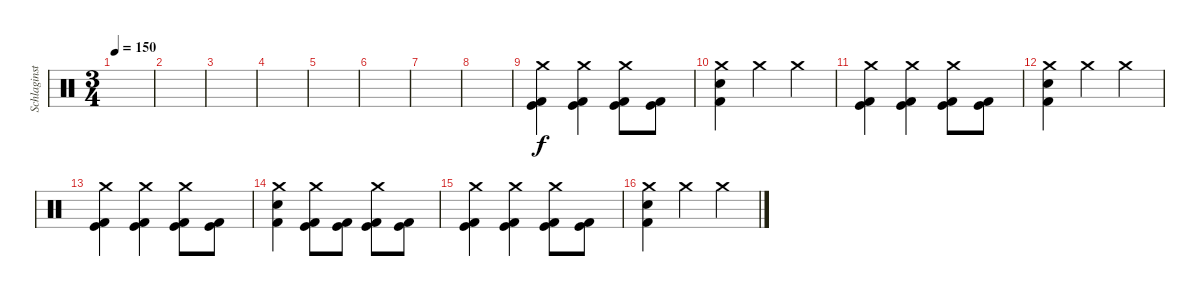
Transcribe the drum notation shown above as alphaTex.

\track ("Schlaginstrumente - Auswahl" "Schlaginst") {instrument percussion}
\staff {score}
\articulation defaults
\ts (3 4)
\tempo 150
\clef neutral
\ks c
|
|
|
|
|
|
|
|
("Crash medium (hit)" "Kick (hit)" "Kick (hit) 2").4 ("Crash medium (hit)" "Kick (hit)" "Kick (hit) 2").4 ("Crash medium (hit)" "Kick (hit)" "Kick (hit) 2").8 ("Kick (hit)" "Kick (hit) 2").8 |
("Crash medium (hit)" "Electric Snare (hit)" "Kick (hit) 2").4 "Crash medium (hit)".4 "Crash medium (hit)".4 |
("Crash medium (hit)" "Kick (hit)" "Kick (hit) 2").4 ("Crash medium (hit)" "Kick (hit)" "Kick (hit) 2").4 ("Crash medium (hit)" "Kick (hit)" "Kick (hit) 2").8 ("Kick (hit)" "Kick (hit) 2").8 |
("Crash medium (hit)" "Electric Snare (hit)" "Kick (hit) 2").4 "Crash medium (hit)".4 "Crash medium (hit)".4 |
("Crash medium (hit)" "Kick (hit)" "Kick (hit) 2").4 ("Crash medium (hit)" "Kick (hit)" "Kick (hit) 2").4 ("Crash medium (hit)" "Kick (hit)" "Kick (hit) 2").8 ("Kick (hit)" "Kick (hit) 2").8 |
("Crash medium (hit)" "Electric Snare (hit)" "Kick (hit) 2").4 ("Crash medium (hit)" "Kick (hit)" "Kick (hit) 2").8 ("Kick (hit)" "Kick (hit) 2").8 ("Crash medium (hit)" "Kick (hit)" "Kick (hit) 2").8 ("Kick (hit)" "Kick (hit) 2").8 |
("Crash medium (hit)" "Kick (hit)" "Kick (hit) 2").4 ("Crash medium (hit)" "Kick (hit)" "Kick (hit) 2").4 ("Crash medium (hit)" "Kick (hit)" "Kick (hit) 2").8 ("Kick (hit)" "Kick (hit) 2").8 |
("Crash medium (hit)" "Electric Snare (hit)" "Kick (hit) 2").4 "Crash medium (hit)".4 "Crash medium (hit)".4
